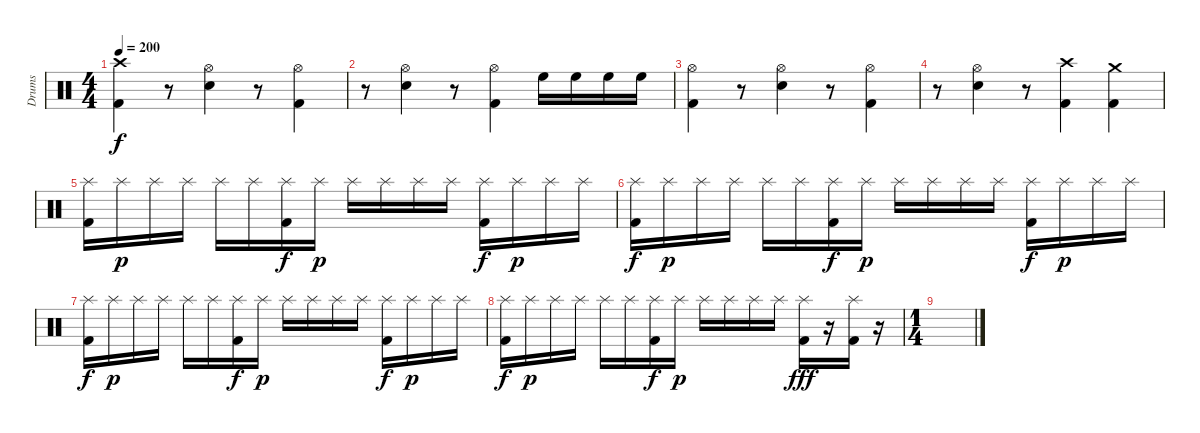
\track ("Drums" "Drums") {instrument percussion}
\staff {score}
\articulation defaults
\ts (4 4)
\tempo 200
\clef neutral
\ks c
("Crash high (hit)" "Kick (hit) 2").4{dy f} r.8 ("Hi-Hat (open)" "Snare (hit) 2").4 r.8 ("Hi-Hat (open)" "Kick (hit) 2").4 |
r.8 ("Hi-Hat (open)" "Snare (hit) 2").4 r.8 ("Hi-Hat (open)" "Kick (hit) 2").4 "High Floor Tom (hit)".16 "High Floor Tom (hit)".16 "High Floor Tom (hit)".16 "High Floor Tom (hit)".16 |
("Hi-Hat (open)" "Kick (hit) 2").4 r.8 ("Hi-Hat (open)" "Snare (hit) 2").4 r.8 ("Hi-Hat (open)" "Kick (hit) 2").4 |
r.8 ("Hi-Hat (open)" "Snare (hit) 2").4 r.8 ("Crash high (hit)" "Kick (hit) 2").4 ("Crash medium (hit)" "Kick (hit) 2").4 |
("Splash (hit)" "Kick (hit) 2").16 "Splash (hit)".16{dy p} "Splash (hit)".16 "Splash (hit)".16 "Splash (hit)".16 "Splash (hit)".16 ("Splash (hit)" "Kick (hit) 2").16{dy f} "Splash (hit)".16{dy p} "Splash (hit)".16 "Splash (hit)".16 "Splash (hit)".16 "Splash (hit)".16 ("Splash (hit)" "Kick (hit) 2").16{dy f} "Splash (hit)".16{dy p} "Splash (hit)".16 "Splash (hit)".16 |
("Splash (hit)" "Kick (hit) 2").16{dy f} "Splash (hit)".16{dy p} "Splash (hit)".16 "Splash (hit)".16 "Splash (hit)".16 "Splash (hit)".16 ("Splash (hit)" "Kick (hit) 2").16{dy f} "Splash (hit)".16{dy p} "Splash (hit)".16 "Splash (hit)".16 "Splash (hit)".16 "Splash (hit)".16 ("Splash (hit)" "Kick (hit) 2").16{dy f} "Splash (hit)".16{dy p} "Splash (hit)".16 "Splash (hit)".16 |
("Splash (hit)" "Kick (hit) 2").16{dy f} "Splash (hit)".16{dy p} "Splash (hit)".16 "Splash (hit)".16 "Splash (hit)".16 "Splash (hit)".16 ("Splash (hit)" "Kick (hit) 2").16{dy f} "Splash (hit)".16{dy p} "Splash (hit)".16 "Splash (hit)".16 "Splash (hit)".16 "Splash (hit)".16 ("Splash (hit)" "Kick (hit) 2").16{dy f} "Splash (hit)".16{dy p} "Splash (hit)".16 "Splash (hit)".16 |
("Splash (hit)" "Kick (hit) 2").16{dy f} "Splash (hit)".16{dy p} "Splash (hit)".16 "Splash (hit)".16 "Splash (hit)".16 "Splash (hit)".16 ("Splash (hit)" "Kick (hit) 2").16{dy f} "Splash (hit)".16{dy p} "Splash (hit)".16 "Splash (hit)".16 "Splash (hit)".16 "Splash (hit)".16 ("Splash (hit)" "Kick (hit) 2").16{dy fff} r.16 ("Splash (hit)" "Kick (hit) 2").16 r.16 |
\ts (1 4)
